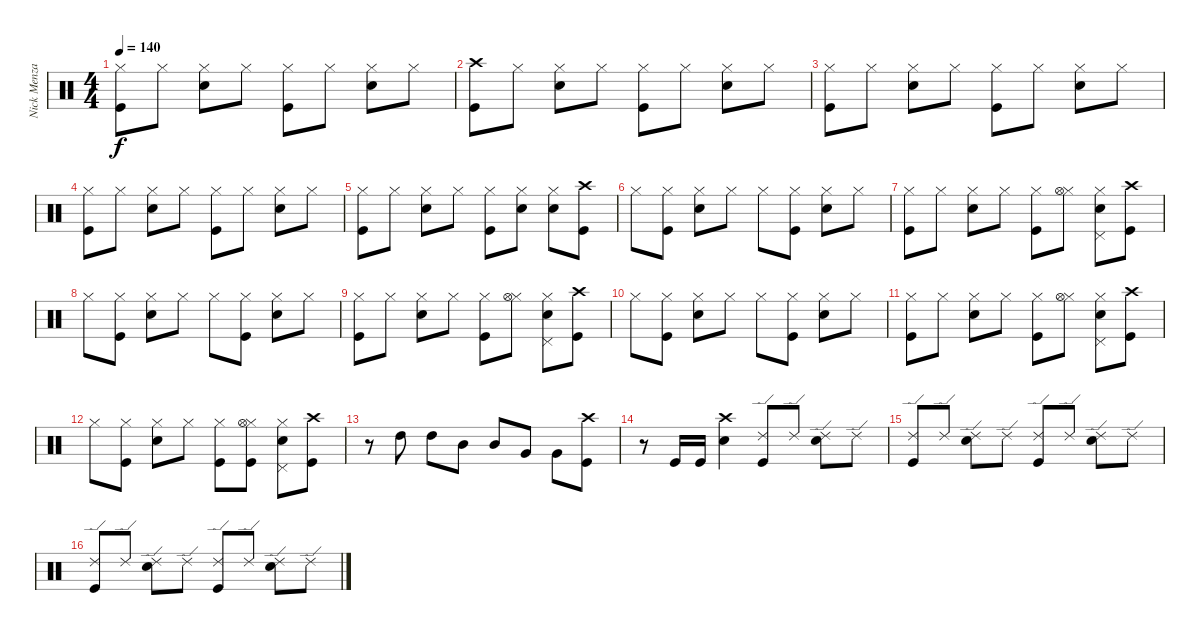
\track ("Nick Menza (Drums)" "Nick Menza") {instrument percussion}
\staff {score}
\articulation defaults
\ts (4 4)
\tempo 140
\clef neutral
\ks c
("Hi-Hat (closed)" "Kick (hit)").8{dy f} "Hi-Hat (closed)".8 ("Hi-Hat (closed)" "Snare (hit) 2").8 "Hi-Hat (closed)".8 ("Hi-Hat (closed)" "Kick (hit)").8 "Hi-Hat (closed)".8 ("Hi-Hat (closed)" "Snare (hit) 2").8 "Hi-Hat (closed)".8 |
("Crash high (hit)" "Kick (hit)").8 "Hi-Hat (closed)".8 ("Hi-Hat (closed)" "Snare (hit) 2").8 "Hi-Hat (closed)".8 ("Hi-Hat (closed)" "Kick (hit)").8 "Hi-Hat (closed)".8 ("Hi-Hat (closed)" "Snare (hit) 2").8 "Hi-Hat (closed)".8 |
("Hi-Hat (closed)" "Kick (hit)").8 "Hi-Hat (closed)".8 ("Hi-Hat (closed)" "Snare (hit) 2").8 "Hi-Hat (closed)".8 ("Hi-Hat (closed)" "Kick (hit)").8 "Hi-Hat (closed)".8 ("Hi-Hat (closed)" "Snare (hit) 2").8 "Hi-Hat (closed)".8 |
("Hi-Hat (closed)" "Kick (hit)").8 "Hi-Hat (closed)".8 ("Hi-Hat (closed)" "Snare (hit) 2").8 "Hi-Hat (closed)".8 ("Hi-Hat (closed)" "Kick (hit)").8 "Hi-Hat (closed)".8 ("Hi-Hat (closed)" "Snare (hit) 2").8 "Hi-Hat (closed)".8 |
("Hi-Hat (closed)" "Kick (hit)").8 "Hi-Hat (closed)".8 ("Hi-Hat (closed)" "Snare (hit) 2").8 "Hi-Hat (closed)".8 ("Hi-Hat (closed)" "Kick (hit)").8 ("Hi-Hat (closed)" "Snare (hit) 2").8 ("Hi-Hat (closed)" "Snare (hit) 2").8 ("Crash high (hit)" "Kick (hit)").8 |
"Hi-Hat (closed)".8 ("Hi-Hat (closed)" "Kick (hit)").8 ("Hi-Hat (closed)" "Snare (hit) 2").8 "Hi-Hat (closed)".8 "Hi-Hat (closed)".8 ("Hi-Hat (closed)" "Kick (hit)").8 ("Hi-Hat (closed)" "Snare (hit) 2").8 "Hi-Hat (closed)".8 |
("Hi-Hat (closed)" "Kick (hit)").8 "Hi-Hat (closed)".8 ("Hi-Hat (closed)" "Snare (hit) 2").8 "Hi-Hat (closed)".8 ("Hi-Hat (closed)" "Kick (hit)").8 ("Hi-Hat (closed)" "Hi-Hat (open)").8 ("Hi-Hat (closed)" "Snare (hit) 2" "Pedal Hi-Hat (hit)").8 ("Crash high (hit)" "Kick (hit)").8 |
"Hi-Hat (closed)".8 ("Hi-Hat (closed)" "Kick (hit)").8 ("Hi-Hat (closed)" "Snare (hit) 2").8 "Hi-Hat (closed)".8 "Hi-Hat (closed)".8 ("Hi-Hat (closed)" "Kick (hit)").8 ("Hi-Hat (closed)" "Snare (hit) 2").8 "Hi-Hat (closed)".8 |
("Hi-Hat (closed)" "Kick (hit)").8 "Hi-Hat (closed)".8 ("Hi-Hat (closed)" "Snare (hit) 2").8 "Hi-Hat (closed)".8 ("Hi-Hat (closed)" "Kick (hit)").8 ("Hi-Hat (closed)" "Hi-Hat (open)").8 ("Hi-Hat (closed)" "Snare (hit) 2" "Pedal Hi-Hat (hit)").8 ("Crash high (hit)" "Kick (hit)").8 |
"Hi-Hat (closed)".8 ("Hi-Hat (closed)" "Kick (hit)").8 ("Hi-Hat (closed)" "Snare (hit) 2").8 "Hi-Hat (closed)".8 "Hi-Hat (closed)".8 ("Hi-Hat (closed)" "Kick (hit)").8 ("Hi-Hat (closed)" "Snare (hit) 2").8 "Hi-Hat (closed)".8 |
("Hi-Hat (closed)" "Kick (hit)").8 "Hi-Hat (closed)".8 ("Hi-Hat (closed)" "Snare (hit) 2").8 "Hi-Hat (closed)".8 ("Hi-Hat (closed)" "Kick (hit)").8 ("Hi-Hat (closed)" "Hi-Hat (open)").8 ("Hi-Hat (closed)" "Snare (hit) 2" "Pedal Hi-Hat (hit)").8 ("Crash high (hit)" "Kick (hit)").8 |
"Hi-Hat (closed)".8 ("Hi-Hat (closed)" "Kick (hit)").8 ("Hi-Hat (closed)" "Snare (hit) 2").8 "Hi-Hat (closed)".8 ("Hi-Hat (closed)" "Kick (hit)").8 ("Hi-Hat (closed)" "Hi-Hat (open)" "Kick (hit)").8 ("Hi-Hat (closed)" "Snare (hit) 2" "Pedal Hi-Hat (hit)").8 ("Crash high (hit)" "Kick (hit)").8 |
r.8 "High Tom (hit)".8 "High Tom (hit)".8 "Mid Tom (hit)".8 "Mid Tom (hit)".8 "Very Low Tom (hit)".8 "Very Low Tom (hit)".8 ("Crash high (hit)" "Kick (hit)").8 |
r.8 "Kick (hit)".16 "Kick (hit)".16 ("Crash high (hit)" "Snare (hit) 2").4 ("Ride (edge) 2" "Kick (hit)").8 "Ride (edge) 2".8 ("Ride (edge) 2" "Snare (hit) 2").8 "Ride (edge) 2".8 |
("Ride (edge) 2" "Kick (hit)").8 "Ride (edge) 2".8 ("Ride (edge) 2" "Snare (hit) 2").8 "Ride (edge) 2".8 ("Ride (edge) 2" "Kick (hit)").8 "Ride (edge) 2".8 ("Ride (edge) 2" "Snare (hit) 2").8 "Ride (edge) 2".8 |
("Ride (edge) 2" "Kick (hit)").8 "Ride (edge) 2".8 ("Ride (edge) 2" "Snare (hit) 2").8 "Ride (edge) 2".8 ("Ride (edge) 2" "Kick (hit)").8 "Ride (edge) 2".8 ("Ride (edge) 2" "Snare (hit) 2").8 "Ride (edge) 2".8
